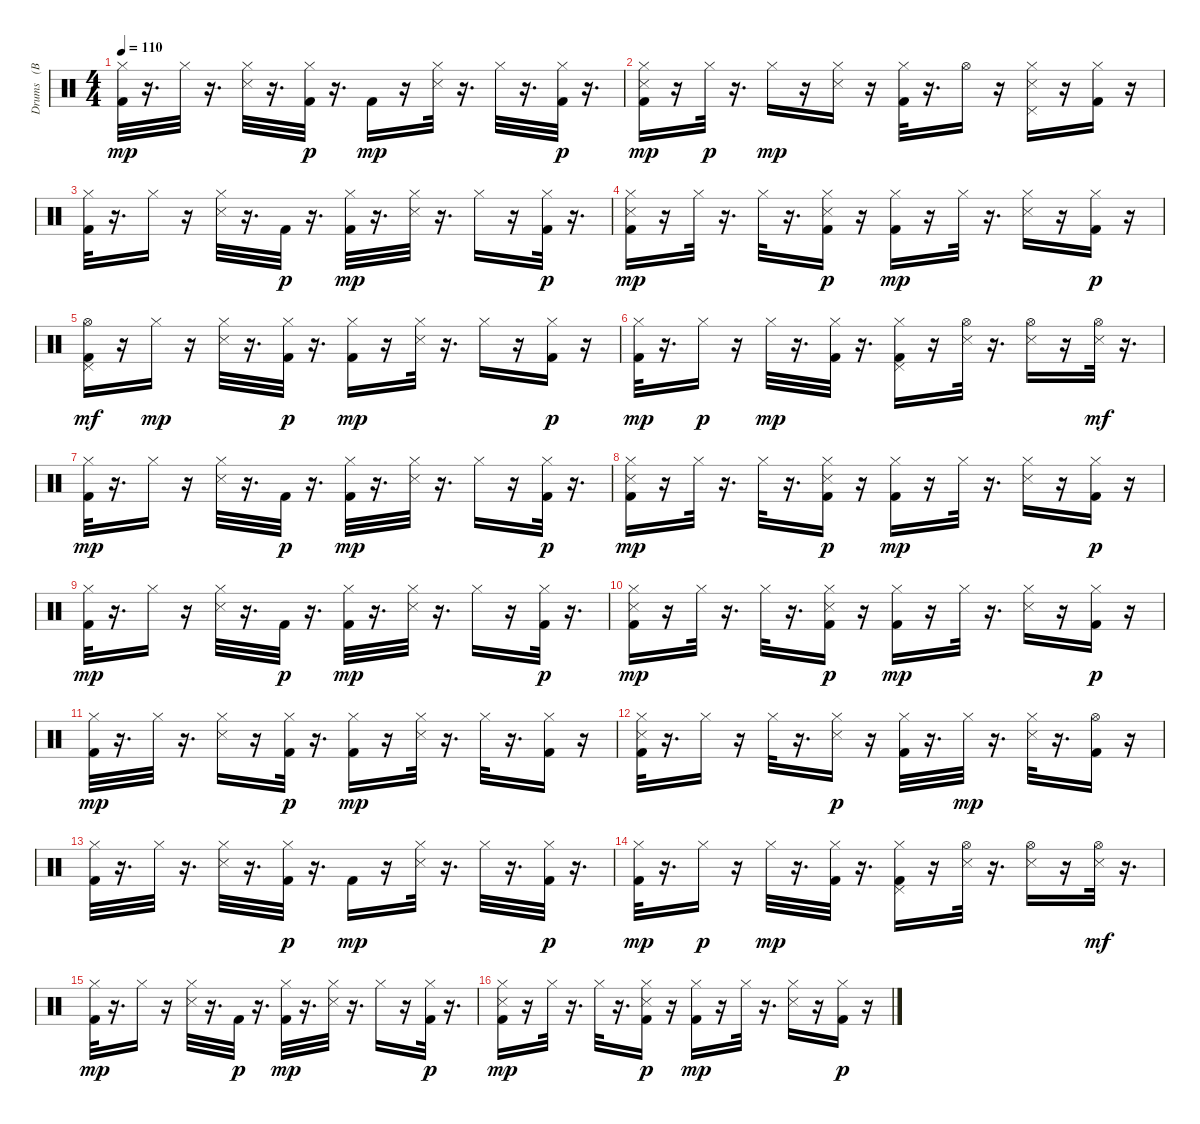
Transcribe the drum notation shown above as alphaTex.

\track ("Drums   (BB)" "Drums   (B") {instrument percussion}
\staff {score}
\articulation defaults
\ts (4 4)
\tempo 110
\clef neutral
\ks c
("Kick (hit) 2" "Hi-Hat (closed)").32{dy mp} r.16{d} "Hi-Hat (closed)".32 r.16{d} ("Snare (side stick) 3" "Hi-Hat (closed)").32 r.16{d} ("Hi-Hat (closed)" "Kick (hit) 2").32{dy p} r.16{d} "Kick (hit) 2".16{dy mp} r.16 ("Snare (side stick) 3" "Hi-Hat (closed)").32 r.16{d} "Hi-Hat (closed)".32 r.16{d} ("Hi-Hat (closed)" "Kick (hit) 2").32{dy p} r.16{d} |
("Kick (hit) 2" "Snare (side stick) 3" "Hi-Hat (closed)").16{dy mp} r.16 "Hi-Hat (closed)".32{dy p} r.16{d} "Hi-Hat (closed)".16{dy mp} r.16 ("Snare (side stick) 3" "Hi-Hat (closed)").16 r.16 ("Hi-Hat (closed)" "Kick (hit) 2").32 r.16{d} "Hi-Hat (open)".16 r.16 ("Pedal Hi-Hat (hit)" "Snare (side stick) 3" "Hi-Hat (closed)").16 r.16 ("Kick (hit) 2" "Hi-Hat (closed)").16 r.16 |
("Kick (hit) 2" "Hi-Hat (closed)").32 r.16{d} "Hi-Hat (closed)".16 r.16 ("Hi-Hat (closed)" "Snare (side stick) 3").32 r.16{d} "Kick (hit) 2".32{dy p} r.16{d} ("Kick (hit) 2" "Hi-Hat (closed)").32{dy mp} r.16{d} ("Snare (side stick) 3" "Hi-Hat (closed)").32 r.16{d} "Hi-Hat (closed)".16 r.16 ("Hi-Hat (closed)" "Kick (hit) 2").32{dy p} r.16{d} |
("Kick (hit) 2" "Snare (side stick) 3" "Hi-Hat (closed)").16{dy mp} r.16 "Hi-Hat (closed)".32 r.16{d} "Hi-Hat (closed)".32 r.16{d} ("Snare (side stick) 3" "Hi-Hat (closed)" "Kick (hit) 2").16{dy p} r.16 ("Hi-Hat (closed)" "Kick (hit) 2").16{dy mp} r.16 "Hi-Hat (closed)".32 r.16{d} ("Snare (side stick) 3" "Hi-Hat (closed)").16 r.16 ("Hi-Hat (closed)" "Kick (hit) 2").16{dy p} r.16 |
("Kick (hit) 2" "Hi-Hat (open)" "Pedal Hi-Hat (hit)").16{dy mf} r.16 "Hi-Hat (closed)".16{dy mp} r.16 ("Snare (side stick) 3" "Hi-Hat (closed)").32 r.16{d} ("Hi-Hat (closed)" "Kick (hit) 2").32{dy p} r.16{d} ("Hi-Hat (closed)" "Kick (hit) 2").16{dy mp} r.16 ("Snare (side stick) 3" "Hi-Hat (closed)").32 r.16{d} "Hi-Hat (closed)".16 r.16 ("Hi-Hat (closed)" "Kick (hit) 2").16{dy p} r.16 |
("Hi-Hat (closed)" "Kick (hit) 2").32{dy mp} r.16{d} "Hi-Hat (closed)".16{dy p} r.16 "Hi-Hat (closed)".32{dy mp} r.16{d} ("Kick (hit) 2" "Hi-Hat (closed)").32 r.16{d} ("Pedal Hi-Hat (hit)" "Kick (hit) 2" "Hi-Hat (closed)").16 r.16 ("Hi-Hat (open)" "Snare (side stick) 3").32 r.16{d} ("Hi-Hat (open)" "Snare (side stick) 3").16 r.16 ("Hi-Hat (open)" "Snare (side stick) 3").32{dy mf} r.16{d} |
("Kick (hit) 2" "Hi-Hat (closed)").32{dy mp} r.16{d} "Hi-Hat (closed)".16 r.16 ("Hi-Hat (closed)" "Snare (side stick) 3").32 r.16{d} "Kick (hit) 2".32{dy p} r.16{d} ("Kick (hit) 2" "Hi-Hat (closed)").32{dy mp} r.16{d} ("Snare (side stick) 3" "Hi-Hat (closed)").32 r.16{d} "Hi-Hat (closed)".16 r.16 ("Hi-Hat (closed)" "Kick (hit) 2").32{dy p} r.16{d} |
("Kick (hit) 2" "Snare (side stick) 3" "Hi-Hat (closed)").16{dy mp} r.16 "Hi-Hat (closed)".32 r.16{d} "Hi-Hat (closed)".32 r.16{d} ("Snare (side stick) 3" "Hi-Hat (closed)" "Kick (hit) 2").16{dy p} r.16 ("Hi-Hat (closed)" "Kick (hit) 2").16{dy mp} r.16 "Hi-Hat (closed)".32 r.16{d} ("Snare (side stick) 3" "Hi-Hat (closed)").16 r.16 ("Hi-Hat (closed)" "Kick (hit) 2").16{dy p} r.16 |
("Kick (hit) 2" "Hi-Hat (closed)").32{dy mp} r.16{d} "Hi-Hat (closed)".16 r.16 ("Hi-Hat (closed)" "Snare (side stick) 3").32 r.16{d} "Kick (hit) 2".32{dy p} r.16{d} ("Kick (hit) 2" "Hi-Hat (closed)").32{dy mp} r.16{d} ("Snare (side stick) 3" "Hi-Hat (closed)").32 r.16{d} "Hi-Hat (closed)".16 r.16 ("Hi-Hat (closed)" "Kick (hit) 2").32{dy p} r.16{d} |
("Kick (hit) 2" "Snare (side stick) 3" "Hi-Hat (closed)").16{dy mp} r.16 "Hi-Hat (closed)".32 r.16{d} "Hi-Hat (closed)".32 r.16{d} ("Snare (side stick) 3" "Hi-Hat (closed)" "Kick (hit) 2").16{dy p} r.16 ("Hi-Hat (closed)" "Kick (hit) 2").16{dy mp} r.16 "Hi-Hat (closed)".32 r.16{d} ("Snare (side stick) 3" "Hi-Hat (closed)").16 r.16 ("Hi-Hat (closed)" "Kick (hit) 2").16{dy p} r.16 |
("Kick (hit) 2" "Hi-Hat (closed)").32{dy mp} r.16{d} "Hi-Hat (closed)".32 r.16{d} ("Snare (side stick) 3" "Hi-Hat (closed)").16 r.16 ("Hi-Hat (closed)" "Kick (hit) 2").32{dy p} r.16{d} ("Kick (hit) 2" "Hi-Hat (closed)").16{dy mp} r.16 ("Snare (side stick) 3" "Hi-Hat (closed)").32 r.16{d} "Hi-Hat (closed)".32 r.16{d} ("Kick (hit) 2" "Hi-Hat (closed)").16 r.16 |
("Kick (hit) 2" "Snare (side stick) 3" "Hi-Hat (closed)").32 r.16{d} "Hi-Hat (closed)".16 r.16 "Hi-Hat (closed)".32 r.16{d} ("Hi-Hat (closed)" "Snare (side stick) 3").16{dy p} r.16 ("Hi-Hat (closed)" "Kick (hit) 2").32 r.16{d} "Hi-Hat (closed)".32{dy mp} r.16{d} ("Snare (side stick) 3" "Hi-Hat (closed)").32 r.16{d} ("Kick (hit) 2" "Hi-Hat (open)").16 r.16 |
("Kick (hit) 2" "Hi-Hat (closed)").32 r.16{d} "Hi-Hat (closed)".32 r.16{d} ("Snare (side stick) 3" "Hi-Hat (closed)").32 r.16{d} ("Hi-Hat (closed)" "Kick (hit) 2").32{dy p} r.16{d} "Kick (hit) 2".16{dy mp} r.16 ("Snare (side stick) 3" "Hi-Hat (closed)").32 r.16{d} "Hi-Hat (closed)".32 r.16{d} ("Hi-Hat (closed)" "Kick (hit) 2").32{dy p} r.16{d} |
("Hi-Hat (closed)" "Kick (hit) 2").32{dy mp} r.16{d} "Hi-Hat (closed)".16{dy p} r.16 "Hi-Hat (closed)".32{dy mp} r.16{d} ("Kick (hit) 2" "Hi-Hat (closed)").32 r.16{d} ("Pedal Hi-Hat (hit)" "Kick (hit) 2" "Hi-Hat (closed)").16 r.16 ("Hi-Hat (open)" "Snare (side stick) 3").32 r.16{d} ("Hi-Hat (open)" "Snare (side stick) 3").16 r.16 ("Hi-Hat (open)" "Snare (side stick) 3").32{dy mf} r.16{d} |
("Kick (hit) 2" "Hi-Hat (closed)").32{dy mp} r.16{d} "Hi-Hat (closed)".16 r.16 ("Hi-Hat (closed)" "Snare (side stick) 3").32 r.16{d} "Kick (hit) 2".32{dy p} r.16{d} ("Kick (hit) 2" "Hi-Hat (closed)").32{dy mp} r.16{d} ("Snare (side stick) 3" "Hi-Hat (closed)").32 r.16{d} "Hi-Hat (closed)".16 r.16 ("Hi-Hat (closed)" "Kick (hit) 2").32{dy p} r.16{d} |
("Kick (hit) 2" "Snare (side stick) 3" "Hi-Hat (closed)").16{dy mp} r.16 "Hi-Hat (closed)".32 r.16{d} "Hi-Hat (closed)".32 r.16{d} ("Snare (side stick) 3" "Hi-Hat (closed)" "Kick (hit) 2").16{dy p} r.16 ("Hi-Hat (closed)" "Kick (hit) 2").16{dy mp} r.16 "Hi-Hat (closed)".32 r.16{d} ("Snare (side stick) 3" "Hi-Hat (closed)").16 r.16 ("Hi-Hat (closed)" "Kick (hit) 2").16{dy p} r.16
